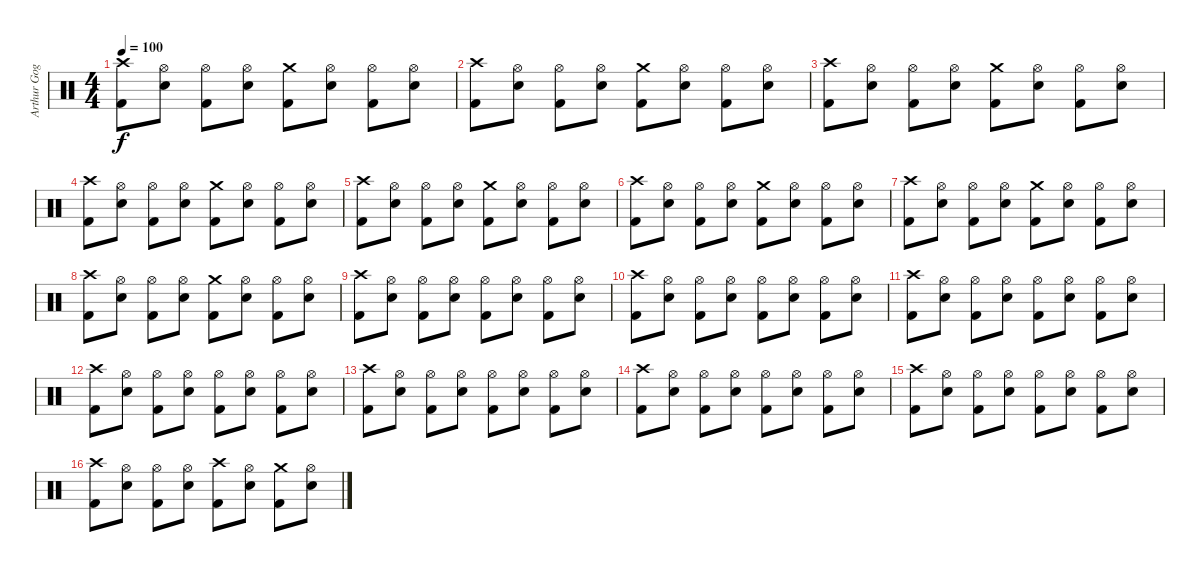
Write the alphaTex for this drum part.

\track ("Arthur Goggy" "Arthur Gog") {instrument percussion}
\staff {score}
\articulation defaults
\ts (4 4)
\tempo 100
\clef neutral
\ks c
("Crash high (hit)" "Kick (hit) 2").8{dy f} ("Hi-Hat (open)" "Electric Snare (hit)").8 ("Hi-Hat (open)" "Kick (hit) 2").8 ("Hi-Hat (open)" "Electric Snare (hit)").8 ("Crash medium (hit)" "Kick (hit) 2").8 ("Hi-Hat (open)" "Electric Snare (hit)").8 ("Hi-Hat (open)" "Kick (hit) 2").8 ("Hi-Hat (open)" "Electric Snare (hit)").8 |
("Crash high (hit)" "Kick (hit) 2").8 ("Hi-Hat (open)" "Electric Snare (hit)").8 ("Hi-Hat (open)" "Kick (hit) 2").8 ("Hi-Hat (open)" "Electric Snare (hit)").8 ("Crash medium (hit)" "Kick (hit) 2").8 ("Hi-Hat (open)" "Electric Snare (hit)").8 ("Hi-Hat (open)" "Kick (hit) 2").8 ("Hi-Hat (open)" "Electric Snare (hit)").8 |
("Crash high (hit)" "Kick (hit) 2").8 ("Hi-Hat (open)" "Electric Snare (hit)").8 ("Hi-Hat (open)" "Kick (hit) 2").8 ("Hi-Hat (open)" "Electric Snare (hit)").8 ("Crash medium (hit)" "Kick (hit) 2").8 ("Hi-Hat (open)" "Electric Snare (hit)").8 ("Hi-Hat (open)" "Kick (hit) 2").8 ("Hi-Hat (open)" "Electric Snare (hit)").8 |
("Crash high (hit)" "Kick (hit) 2").8 ("Hi-Hat (open)" "Electric Snare (hit)").8 ("Hi-Hat (open)" "Kick (hit) 2").8 ("Hi-Hat (open)" "Electric Snare (hit)").8 ("Crash medium (hit)" "Kick (hit) 2").8 ("Hi-Hat (open)" "Electric Snare (hit)").8 ("Hi-Hat (open)" "Kick (hit) 2").8 ("Hi-Hat (open)" "Electric Snare (hit)").8 |
("Crash high (hit)" "Kick (hit) 2").8 ("Hi-Hat (open)" "Electric Snare (hit)").8 ("Hi-Hat (open)" "Kick (hit) 2").8 ("Hi-Hat (open)" "Electric Snare (hit)").8 ("Crash medium (hit)" "Kick (hit) 2").8 ("Hi-Hat (open)" "Electric Snare (hit)").8 ("Hi-Hat (open)" "Kick (hit) 2").8 ("Hi-Hat (open)" "Electric Snare (hit)").8 |
("Crash high (hit)" "Kick (hit) 2").8 ("Hi-Hat (open)" "Electric Snare (hit)").8 ("Hi-Hat (open)" "Kick (hit) 2").8 ("Hi-Hat (open)" "Electric Snare (hit)").8 ("Crash medium (hit)" "Kick (hit) 2").8 ("Hi-Hat (open)" "Electric Snare (hit)").8 ("Hi-Hat (open)" "Kick (hit) 2").8 ("Hi-Hat (open)" "Electric Snare (hit)").8 |
("Crash high (hit)" "Kick (hit) 2").8 ("Hi-Hat (open)" "Electric Snare (hit)").8 ("Hi-Hat (open)" "Kick (hit) 2").8 ("Hi-Hat (open)" "Electric Snare (hit)").8 ("Crash medium (hit)" "Kick (hit) 2").8 ("Hi-Hat (open)" "Electric Snare (hit)").8 ("Hi-Hat (open)" "Kick (hit) 2").8 ("Hi-Hat (open)" "Electric Snare (hit)").8 |
("Crash high (hit)" "Kick (hit) 2").8 ("Hi-Hat (open)" "Electric Snare (hit)").8 ("Hi-Hat (open)" "Kick (hit) 2").8 ("Hi-Hat (open)" "Electric Snare (hit)").8 ("Crash medium (hit)" "Kick (hit) 2").8 ("Hi-Hat (open)" "Electric Snare (hit)").8 ("Hi-Hat (open)" "Kick (hit) 2").8 ("Hi-Hat (open)" "Electric Snare (hit)").8 |
("Crash high (hit)" "Kick (hit) 2").8 ("Hi-Hat (open)" "Electric Snare (hit)").8 ("Hi-Hat (open)" "Kick (hit) 2").8 ("Hi-Hat (open)" "Electric Snare (hit)").8 ("Hi-Hat (open)" "Kick (hit) 2").8 ("Hi-Hat (open)" "Electric Snare (hit)").8 ("Hi-Hat (open)" "Kick (hit) 2").8 ("Hi-Hat (open)" "Electric Snare (hit)").8 |
("Crash high (hit)" "Kick (hit) 2").8 ("Hi-Hat (open)" "Electric Snare (hit)").8 ("Hi-Hat (open)" "Kick (hit) 2").8 ("Hi-Hat (open)" "Electric Snare (hit)").8 ("Hi-Hat (open)" "Kick (hit) 2").8 ("Hi-Hat (open)" "Electric Snare (hit)").8 ("Hi-Hat (open)" "Kick (hit) 2").8 ("Hi-Hat (open)" "Electric Snare (hit)").8 |
("Crash high (hit)" "Kick (hit) 2").8 ("Hi-Hat (open)" "Electric Snare (hit)").8 ("Hi-Hat (open)" "Kick (hit) 2").8 ("Hi-Hat (open)" "Electric Snare (hit)").8 ("Hi-Hat (open)" "Kick (hit) 2").8 ("Hi-Hat (open)" "Electric Snare (hit)").8 ("Hi-Hat (open)" "Kick (hit) 2").8 ("Hi-Hat (open)" "Electric Snare (hit)").8 |
("Crash high (hit)" "Kick (hit) 2").8 ("Hi-Hat (open)" "Electric Snare (hit)").8 ("Hi-Hat (open)" "Kick (hit) 2").8 ("Hi-Hat (open)" "Electric Snare (hit)").8 ("Hi-Hat (open)" "Kick (hit) 2").8 ("Hi-Hat (open)" "Electric Snare (hit)").8 ("Hi-Hat (open)" "Kick (hit) 2").8 ("Hi-Hat (open)" "Electric Snare (hit)").8 |
("Crash high (hit)" "Kick (hit) 2").8 ("Hi-Hat (open)" "Electric Snare (hit)").8 ("Hi-Hat (open)" "Kick (hit) 2").8 ("Hi-Hat (open)" "Electric Snare (hit)").8 ("Hi-Hat (open)" "Kick (hit) 2").8 ("Hi-Hat (open)" "Electric Snare (hit)").8 ("Hi-Hat (open)" "Kick (hit) 2").8 ("Hi-Hat (open)" "Electric Snare (hit)").8 |
("Crash high (hit)" "Kick (hit) 2").8 ("Hi-Hat (open)" "Electric Snare (hit)").8 ("Hi-Hat (open)" "Kick (hit) 2").8 ("Hi-Hat (open)" "Electric Snare (hit)").8 ("Hi-Hat (open)" "Kick (hit) 2").8 ("Hi-Hat (open)" "Electric Snare (hit)").8 ("Hi-Hat (open)" "Kick (hit) 2").8 ("Hi-Hat (open)" "Electric Snare (hit)").8 |
("Crash high (hit)" "Kick (hit) 2").8 ("Hi-Hat (open)" "Electric Snare (hit)").8 ("Hi-Hat (open)" "Kick (hit) 2").8 ("Hi-Hat (open)" "Electric Snare (hit)").8 ("Hi-Hat (open)" "Kick (hit) 2").8 ("Hi-Hat (open)" "Electric Snare (hit)").8 ("Hi-Hat (open)" "Kick (hit) 2").8 ("Hi-Hat (open)" "Electric Snare (hit)").8 |
("Crash high (hit)" "Kick (hit) 2").8 ("Hi-Hat (open)" "Electric Snare (hit)").8 ("Hi-Hat (open)" "Kick (hit) 2").8 ("Hi-Hat (open)" "Electric Snare (hit)").8 ("Crash high (hit)" "Kick (hit) 2").8 ("Hi-Hat (open)" "Electric Snare (hit)").8 ("Crash medium (hit)" "Kick (hit) 2").8 ("Hi-Hat (open)" "Electric Snare (hit)").8
